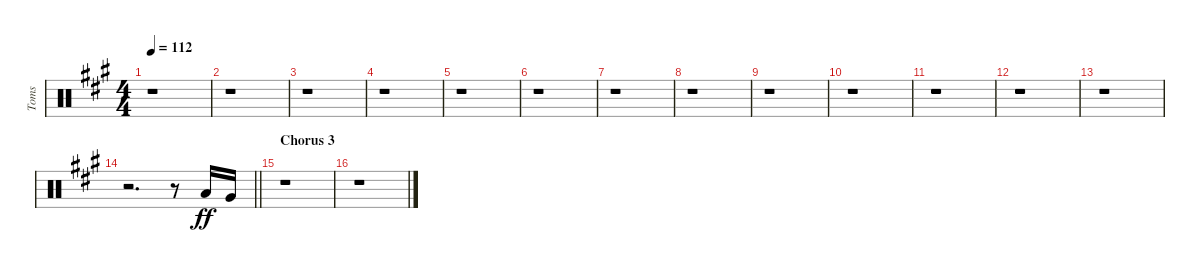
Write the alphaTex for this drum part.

\track ("Toms" "Toms") {instrument percussion}
\staff {score}
\articulation defaults
\ts (4 4)
\tempo 112
\clef neutral
\ks f#minor
r.1{dy ff} |
r.1 |
r.1 |
r.1 |
r.1 |
r.1 |
r.1 |
r.1 |
r.1 |
r.1 |
r.1 |
r.1 |
r.1 |
\barLineRight lightlight
r.2{d} r.8 "Low Tom (hit)".16{beam Up} "Very Low Tom (hit)".16{beam Up} |
\section ("" "Chorus 3")
r.1 |
r.1
